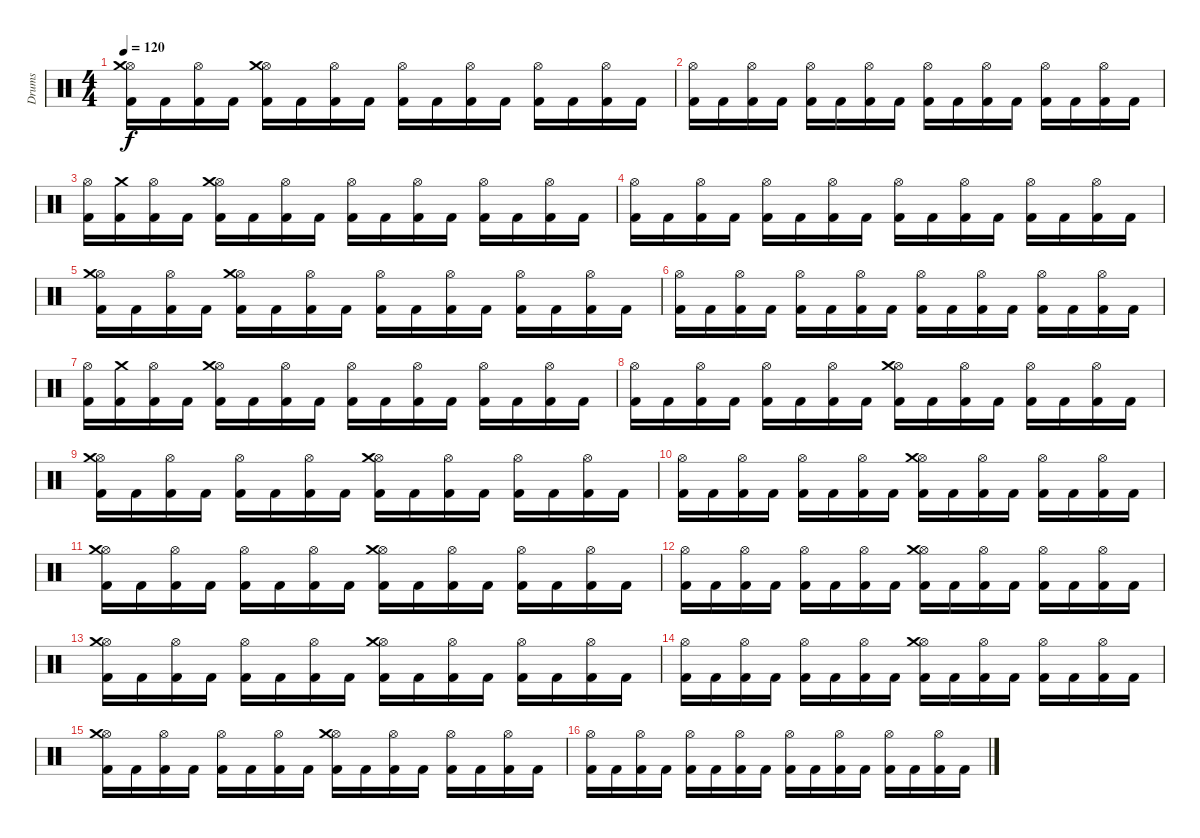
\track ("Drums" "Drums") {instrument percussion}
\staff {score}
\articulation defaults
\ts (4 4)
\tempo 120
\clef neutral
\ks c
("Kick (hit) 2" "Hi-Hat (open)" "Crash medium (hit)").16{dy f} "Kick (hit) 2".16 ("Kick (hit) 2" "Hi-Hat (open)").16 "Kick (hit) 2".16 ("Kick (hit) 2" "Hi-Hat (open)" "Crash medium (hit)").16 "Kick (hit) 2".16 ("Kick (hit) 2" "Hi-Hat (open)").16 "Kick (hit) 2".16 ("Kick (hit) 2" "Hi-Hat (open)").16 "Kick (hit) 2".16 ("Kick (hit) 2" "Hi-Hat (open)").16 "Kick (hit) 2".16 ("Kick (hit) 2" "Hi-Hat (open)").16 "Kick (hit) 2".16 ("Kick (hit) 2" "Hi-Hat (open)").16 "Kick (hit) 2".16 |
("Kick (hit) 2" "Hi-Hat (open)").16 "Kick (hit) 2".16 ("Kick (hit) 2" "Hi-Hat (open)").16 "Kick (hit) 2".16 ("Kick (hit) 2" "Hi-Hat (open)").16 "Kick (hit) 2".16 ("Kick (hit) 2" "Hi-Hat (open)").16 "Kick (hit) 2".16 ("Kick (hit) 2" "Hi-Hat (open)").16 "Kick (hit) 2".16 ("Kick (hit) 2" "Hi-Hat (open)").16 "Kick (hit) 2".16 ("Kick (hit) 2" "Hi-Hat (open)").16 "Kick (hit) 2".16 ("Kick (hit) 2" "Hi-Hat (open)").16 "Kick (hit) 2".16 |
("Kick (hit) 2" "Hi-Hat (open)").16 ("Kick (hit) 2" "Crash medium (hit)").16 ("Kick (hit) 2" "Hi-Hat (open)").16 "Kick (hit) 2".16 ("Kick (hit) 2" "Hi-Hat (open)" "Crash medium (hit)").16 "Kick (hit) 2".16 ("Kick (hit) 2" "Hi-Hat (open)").16 "Kick (hit) 2".16 ("Kick (hit) 2" "Hi-Hat (open)").16 "Kick (hit) 2".16 ("Kick (hit) 2" "Hi-Hat (open)").16 "Kick (hit) 2".16 ("Kick (hit) 2" "Hi-Hat (open)").16 "Kick (hit) 2".16 ("Kick (hit) 2" "Hi-Hat (open)").16 "Kick (hit) 2".16 |
("Kick (hit) 2" "Hi-Hat (open)").16 "Kick (hit) 2".16 ("Kick (hit) 2" "Hi-Hat (open)").16 "Kick (hit) 2".16 ("Kick (hit) 2" "Hi-Hat (open)").16 "Kick (hit) 2".16 ("Kick (hit) 2" "Hi-Hat (open)").16 "Kick (hit) 2".16 ("Kick (hit) 2" "Hi-Hat (open)").16 "Kick (hit) 2".16 ("Kick (hit) 2" "Hi-Hat (open)").16 "Kick (hit) 2".16 ("Kick (hit) 2" "Hi-Hat (open)").16 "Kick (hit) 2".16 ("Kick (hit) 2" "Hi-Hat (open)").16 "Kick (hit) 2".16 |
("Kick (hit) 2" "Hi-Hat (open)" "Crash medium (hit)").16 "Kick (hit) 2".16 ("Kick (hit) 2" "Hi-Hat (open)").16 "Kick (hit) 2".16 ("Kick (hit) 2" "Hi-Hat (open)" "Crash medium (hit)").16 "Kick (hit) 2".16 ("Kick (hit) 2" "Hi-Hat (open)").16 "Kick (hit) 2".16 ("Kick (hit) 2" "Hi-Hat (open)").16 "Kick (hit) 2".16 ("Kick (hit) 2" "Hi-Hat (open)").16 "Kick (hit) 2".16 ("Kick (hit) 2" "Hi-Hat (open)").16 "Kick (hit) 2".16 ("Kick (hit) 2" "Hi-Hat (open)").16 "Kick (hit) 2".16 |
("Kick (hit) 2" "Hi-Hat (open)").16 "Kick (hit) 2".16 ("Kick (hit) 2" "Hi-Hat (open)").16 "Kick (hit) 2".16 ("Kick (hit) 2" "Hi-Hat (open)").16 "Kick (hit) 2".16 ("Kick (hit) 2" "Hi-Hat (open)").16 "Kick (hit) 2".16 ("Kick (hit) 2" "Hi-Hat (open)").16 "Kick (hit) 2".16 ("Kick (hit) 2" "Hi-Hat (open)").16 "Kick (hit) 2".16 ("Kick (hit) 2" "Hi-Hat (open)").16 "Kick (hit) 2".16 ("Kick (hit) 2" "Hi-Hat (open)").16 "Kick (hit) 2".16 |
("Kick (hit) 2" "Hi-Hat (open)").16 ("Kick (hit) 2" "Crash medium (hit)").16 ("Kick (hit) 2" "Hi-Hat (open)").16 "Kick (hit) 2".16 ("Kick (hit) 2" "Hi-Hat (open)" "Crash medium (hit)").16 "Kick (hit) 2".16 ("Kick (hit) 2" "Hi-Hat (open)").16 "Kick (hit) 2".16 ("Kick (hit) 2" "Hi-Hat (open)").16 "Kick (hit) 2".16 ("Kick (hit) 2" "Hi-Hat (open)").16 "Kick (hit) 2".16 ("Kick (hit) 2" "Hi-Hat (open)").16 "Kick (hit) 2".16 ("Kick (hit) 2" "Hi-Hat (open)").16 "Kick (hit) 2".16 |
("Kick (hit) 2" "Hi-Hat (open)").16 "Kick (hit) 2".16 ("Kick (hit) 2" "Hi-Hat (open)").16 "Kick (hit) 2".16 ("Kick (hit) 2" "Hi-Hat (open)").16 "Kick (hit) 2".16 ("Kick (hit) 2" "Hi-Hat (open)").16 "Kick (hit) 2".16 ("Kick (hit) 2" "Hi-Hat (open)" "Crash medium (hit)").16 "Kick (hit) 2".16 ("Kick (hit) 2" "Hi-Hat (open)").16 "Kick (hit) 2".16 ("Kick (hit) 2" "Hi-Hat (open)").16 "Kick (hit) 2".16 ("Kick (hit) 2" "Hi-Hat (open)").16 "Kick (hit) 2".16 |
("Kick (hit) 2" "Hi-Hat (open)" "Crash medium (hit)").16 "Kick (hit) 2".16 ("Kick (hit) 2" "Hi-Hat (open)").16 "Kick (hit) 2".16 ("Kick (hit) 2" "Hi-Hat (open)").16 "Kick (hit) 2".16 ("Kick (hit) 2" "Hi-Hat (open)").16 "Kick (hit) 2".16 ("Kick (hit) 2" "Hi-Hat (open)" "Crash medium (hit)").16 "Kick (hit) 2".16 ("Kick (hit) 2" "Hi-Hat (open)").16 "Kick (hit) 2".16 ("Kick (hit) 2" "Hi-Hat (open)").16 "Kick (hit) 2".16 ("Kick (hit) 2" "Hi-Hat (open)").16 "Kick (hit) 2".16 |
("Kick (hit) 2" "Hi-Hat (open)").16 "Kick (hit) 2".16 ("Kick (hit) 2" "Hi-Hat (open)").16 "Kick (hit) 2".16 ("Kick (hit) 2" "Hi-Hat (open)").16 "Kick (hit) 2".16 ("Kick (hit) 2" "Hi-Hat (open)").16 "Kick (hit) 2".16 ("Kick (hit) 2" "Hi-Hat (open)" "Crash medium (hit)").16 "Kick (hit) 2".16 ("Kick (hit) 2" "Hi-Hat (open)").16 "Kick (hit) 2".16 ("Kick (hit) 2" "Hi-Hat (open)").16 "Kick (hit) 2".16 ("Kick (hit) 2" "Hi-Hat (open)").16 "Kick (hit) 2".16 |
("Kick (hit) 2" "Hi-Hat (open)" "Crash medium (hit)").16 "Kick (hit) 2".16 ("Kick (hit) 2" "Hi-Hat (open)").16 "Kick (hit) 2".16 ("Kick (hit) 2" "Hi-Hat (open)").16 "Kick (hit) 2".16 ("Kick (hit) 2" "Hi-Hat (open)").16 "Kick (hit) 2".16 ("Kick (hit) 2" "Hi-Hat (open)" "Crash medium (hit)").16 "Kick (hit) 2".16 ("Kick (hit) 2" "Hi-Hat (open)").16 "Kick (hit) 2".16 ("Kick (hit) 2" "Hi-Hat (open)").16 "Kick (hit) 2".16 ("Kick (hit) 2" "Hi-Hat (open)").16 "Kick (hit) 2".16 |
("Kick (hit) 2" "Hi-Hat (open)").16 "Kick (hit) 2".16 ("Kick (hit) 2" "Hi-Hat (open)").16 "Kick (hit) 2".16 ("Kick (hit) 2" "Hi-Hat (open)").16 "Kick (hit) 2".16 ("Kick (hit) 2" "Hi-Hat (open)").16 "Kick (hit) 2".16 ("Kick (hit) 2" "Hi-Hat (open)" "Crash medium (hit)").16 "Kick (hit) 2".16 ("Kick (hit) 2" "Hi-Hat (open)").16 "Kick (hit) 2".16 ("Kick (hit) 2" "Hi-Hat (open)").16 "Kick (hit) 2".16 ("Kick (hit) 2" "Hi-Hat (open)").16 "Kick (hit) 2".16 |
("Kick (hit) 2" "Hi-Hat (open)" "Crash medium (hit)").16 "Kick (hit) 2".16 ("Kick (hit) 2" "Hi-Hat (open)").16 "Kick (hit) 2".16 ("Kick (hit) 2" "Hi-Hat (open)").16 "Kick (hit) 2".16 ("Kick (hit) 2" "Hi-Hat (open)").16 "Kick (hit) 2".16 ("Kick (hit) 2" "Hi-Hat (open)" "Crash medium (hit)").16 "Kick (hit) 2".16 ("Kick (hit) 2" "Hi-Hat (open)").16 "Kick (hit) 2".16 ("Kick (hit) 2" "Hi-Hat (open)").16 "Kick (hit) 2".16 ("Kick (hit) 2" "Hi-Hat (open)").16 "Kick (hit) 2".16 |
("Kick (hit) 2" "Hi-Hat (open)").16 "Kick (hit) 2".16 ("Kick (hit) 2" "Hi-Hat (open)").16 "Kick (hit) 2".16 ("Kick (hit) 2" "Hi-Hat (open)").16 "Kick (hit) 2".16 ("Kick (hit) 2" "Hi-Hat (open)").16 "Kick (hit) 2".16 ("Kick (hit) 2" "Hi-Hat (open)" "Crash medium (hit)").16 "Kick (hit) 2".16 ("Kick (hit) 2" "Hi-Hat (open)").16 "Kick (hit) 2".16 ("Kick (hit) 2" "Hi-Hat (open)").16 "Kick (hit) 2".16 ("Kick (hit) 2" "Hi-Hat (open)").16 "Kick (hit) 2".16 |
("Kick (hit) 2" "Hi-Hat (open)" "Crash medium (hit)").16 "Kick (hit) 2".16 ("Kick (hit) 2" "Hi-Hat (open)").16 "Kick (hit) 2".16 ("Kick (hit) 2" "Hi-Hat (open)").16 "Kick (hit) 2".16 ("Kick (hit) 2" "Hi-Hat (open)").16 "Kick (hit) 2".16 ("Kick (hit) 2" "Hi-Hat (open)" "Crash medium (hit)").16 "Kick (hit) 2".16 ("Kick (hit) 2" "Hi-Hat (open)").16 "Kick (hit) 2".16 ("Kick (hit) 2" "Hi-Hat (open)").16 "Kick (hit) 2".16 ("Kick (hit) 2" "Hi-Hat (open)").16 "Kick (hit) 2".16 |
("Kick (hit) 2" "Hi-Hat (open)").16 "Kick (hit) 2".16 ("Kick (hit) 2" "Hi-Hat (open)").16 "Kick (hit) 2".16 ("Kick (hit) 2" "Hi-Hat (open)").16 "Kick (hit) 2".16 ("Kick (hit) 2" "Hi-Hat (open)").16 "Kick (hit) 2".16 ("Kick (hit) 2" "Hi-Hat (open)").16 "Kick (hit) 2".16 ("Kick (hit) 2" "Hi-Hat (open)").16 "Kick (hit) 2".16 ("Kick (hit) 2" "Hi-Hat (open)").16 "Kick (hit) 2".16 ("Kick (hit) 2" "Hi-Hat (open)").16 "Kick (hit) 2".16
